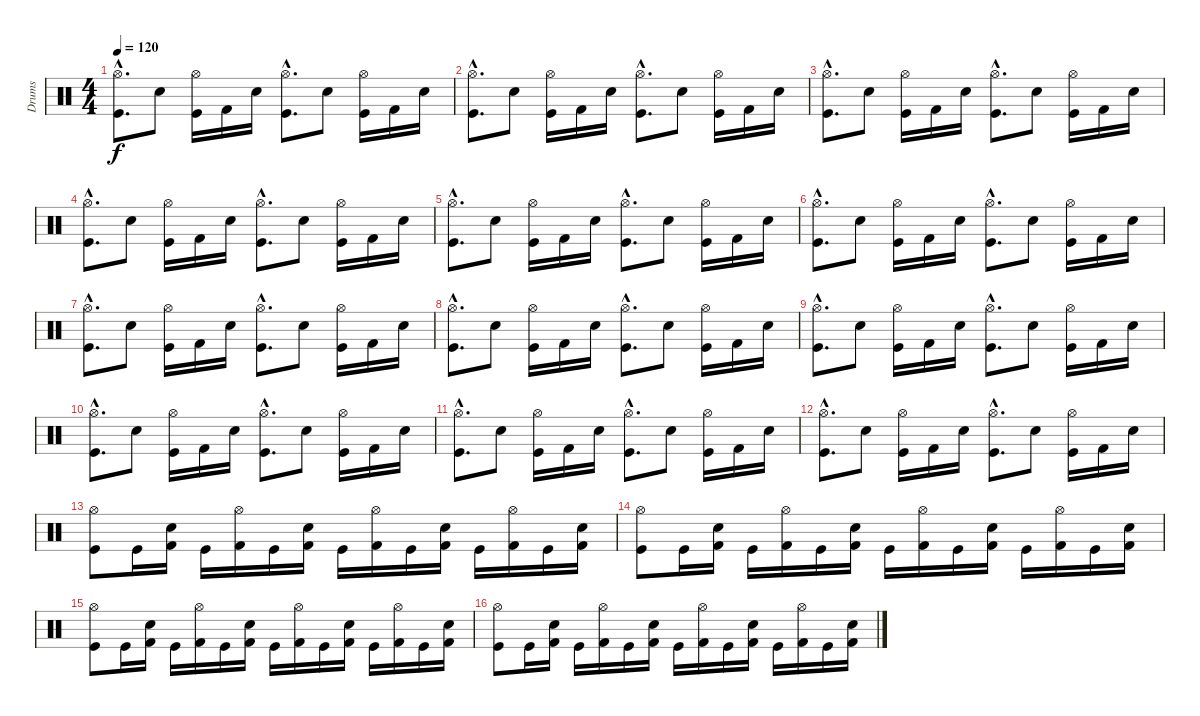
\track ("Drums" "Drums") {instrument percussion}
\staff {score}
\articulation defaults
\ts (4 4)
\tempo 120
\clef neutral
\ks c
("Hi-Hat (open)"{hac} "Kick (hit)"{hac}).8{d dy f} "Snare (hit) 2".8 ("Hi-Hat (open)" "Kick (hit)").16 "Kick (hit) 2".16 "Snare (hit) 2".16 ("Hi-Hat (open)"{hac} "Kick (hit)"{hac}).8{d} "Snare (hit) 2".8 ("Hi-Hat (open)" "Kick (hit)").16 "Kick (hit) 2".16 "Snare (hit) 2".16 |
("Hi-Hat (open)"{hac} "Kick (hit)"{hac}).8{d} "Snare (hit) 2".8 ("Hi-Hat (open)" "Kick (hit)").16 "Kick (hit) 2".16 "Snare (hit) 2".16 ("Hi-Hat (open)"{hac} "Kick (hit)"{hac}).8{d} "Snare (hit) 2".8 ("Hi-Hat (open)" "Kick (hit)").16 "Kick (hit) 2".16 "Snare (hit) 2".16 |
("Hi-Hat (open)"{hac} "Kick (hit)"{hac}).8{d} "Snare (hit) 2".8 ("Hi-Hat (open)" "Kick (hit)").16 "Kick (hit) 2".16 "Snare (hit) 2".16 ("Hi-Hat (open)"{hac} "Kick (hit)"{hac}).8{d} "Snare (hit) 2".8 ("Hi-Hat (open)" "Kick (hit)").16 "Kick (hit) 2".16 "Snare (hit) 2".16 |
("Hi-Hat (open)"{hac} "Kick (hit)"{hac}).8{d} "Snare (hit) 2".8 ("Hi-Hat (open)" "Kick (hit)").16 "Kick (hit) 2".16 "Snare (hit) 2".16 ("Hi-Hat (open)"{hac} "Kick (hit)"{hac}).8{d} "Snare (hit) 2".8 ("Hi-Hat (open)" "Kick (hit)").16 "Kick (hit) 2".16 "Snare (hit) 2".16 |
("Hi-Hat (open)"{hac} "Kick (hit)"{hac}).8{d} "Snare (hit) 2".8 ("Hi-Hat (open)" "Kick (hit)").16 "Kick (hit) 2".16 "Snare (hit) 2".16 ("Hi-Hat (open)"{hac} "Kick (hit)"{hac}).8{d} "Snare (hit) 2".8 ("Hi-Hat (open)" "Kick (hit)").16 "Kick (hit) 2".16 "Snare (hit) 2".16 |
("Hi-Hat (open)"{hac} "Kick (hit)"{hac}).8{d} "Snare (hit) 2".8 ("Hi-Hat (open)" "Kick (hit)").16 "Kick (hit) 2".16 "Snare (hit) 2".16 ("Hi-Hat (open)"{hac} "Kick (hit)"{hac}).8{d} "Snare (hit) 2".8 ("Hi-Hat (open)" "Kick (hit)").16 "Kick (hit) 2".16 "Snare (hit) 2".16 |
("Hi-Hat (open)"{hac} "Kick (hit)"{hac}).8{d} "Snare (hit) 2".8 ("Hi-Hat (open)" "Kick (hit)").16 "Kick (hit) 2".16 "Snare (hit) 2".16 ("Hi-Hat (open)"{hac} "Kick (hit)"{hac}).8{d} "Snare (hit) 2".8 ("Hi-Hat (open)" "Kick (hit)").16 "Kick (hit) 2".16 "Snare (hit) 2".16 |
("Hi-Hat (open)"{hac} "Kick (hit)"{hac}).8{d} "Snare (hit) 2".8 ("Hi-Hat (open)" "Kick (hit)").16 "Kick (hit) 2".16 "Snare (hit) 2".16 ("Hi-Hat (open)"{hac} "Kick (hit)"{hac}).8{d} "Snare (hit) 2".8 ("Hi-Hat (open)" "Kick (hit)").16 "Kick (hit) 2".16 "Snare (hit) 2".16 |
("Hi-Hat (open)"{hac} "Kick (hit)"{hac}).8{d} "Snare (hit) 2".8 ("Hi-Hat (open)" "Kick (hit)").16 "Kick (hit) 2".16 "Snare (hit) 2".16 ("Hi-Hat (open)"{hac} "Kick (hit)"{hac}).8{d} "Snare (hit) 2".8 ("Hi-Hat (open)" "Kick (hit)").16 "Kick (hit) 2".16 "Snare (hit) 2".16 |
("Hi-Hat (open)"{hac} "Kick (hit)"{hac}).8{d} "Snare (hit) 2".8 ("Hi-Hat (open)" "Kick (hit)").16 "Kick (hit) 2".16 "Snare (hit) 2".16 ("Hi-Hat (open)"{hac} "Kick (hit)"{hac}).8{d} "Snare (hit) 2".8 ("Hi-Hat (open)" "Kick (hit)").16 "Kick (hit) 2".16 "Snare (hit) 2".16 |
("Hi-Hat (open)"{hac} "Kick (hit)"{hac}).8{d} "Snare (hit) 2".8 ("Hi-Hat (open)" "Kick (hit)").16 "Kick (hit) 2".16 "Snare (hit) 2".16 ("Hi-Hat (open)"{hac} "Kick (hit)"{hac}).8{d} "Snare (hit) 2".8 ("Hi-Hat (open)" "Kick (hit)").16 "Kick (hit) 2".16 "Snare (hit) 2".16 |
("Hi-Hat (open)"{hac} "Kick (hit)"{hac}).8{d} "Snare (hit) 2".8 ("Hi-Hat (open)" "Kick (hit)").16 "Kick (hit) 2".16 "Snare (hit) 2".16 ("Hi-Hat (open)"{hac} "Kick (hit)"{hac}).8{d} "Snare (hit) 2".8 ("Hi-Hat (open)" "Kick (hit)").16 "Kick (hit) 2".16 "Snare (hit) 2".16 |
("Hi-Hat (open)" "Kick (hit)").8 "Kick (hit)".16 ("Snare (hit) 2" "Kick (hit) 2").16 "Kick (hit)".16 ("Hi-Hat (open)" "Kick (hit) 2").16 "Kick (hit)".16 ("Snare (hit) 2" "Kick (hit) 2").16 "Kick (hit)".16 ("Hi-Hat (open)" "Kick (hit) 2").16 "Kick (hit)".16 ("Snare (hit) 2" "Kick (hit) 2").16 "Kick (hit)".16 ("Hi-Hat (open)" "Kick (hit) 2").16 "Kick (hit)".16 ("Snare (hit) 2" "Kick (hit) 2").16 |
("Hi-Hat (open)" "Kick (hit)").8 "Kick (hit)".16 ("Snare (hit) 2" "Kick (hit) 2").16 "Kick (hit)".16 ("Hi-Hat (open)" "Kick (hit) 2").16 "Kick (hit)".16 ("Snare (hit) 2" "Kick (hit) 2").16 "Kick (hit)".16 ("Hi-Hat (open)" "Kick (hit) 2").16 "Kick (hit)".16 ("Snare (hit) 2" "Kick (hit) 2").16 "Kick (hit)".16 ("Hi-Hat (open)" "Kick (hit) 2").16 "Kick (hit)".16 ("Snare (hit) 2" "Kick (hit) 2").16 |
("Hi-Hat (open)" "Kick (hit)").8 "Kick (hit)".16 ("Snare (hit) 2" "Kick (hit) 2").16 "Kick (hit)".16 ("Hi-Hat (open)" "Kick (hit) 2").16 "Kick (hit)".16 ("Snare (hit) 2" "Kick (hit) 2").16 "Kick (hit)".16 ("Hi-Hat (open)" "Kick (hit) 2").16 "Kick (hit)".16 ("Snare (hit) 2" "Kick (hit) 2").16 "Kick (hit)".16 ("Hi-Hat (open)" "Kick (hit) 2").16 "Kick (hit)".16 ("Snare (hit) 2" "Kick (hit) 2").16 |
("Hi-Hat (open)" "Kick (hit)").8 "Kick (hit)".16 ("Snare (hit) 2" "Kick (hit) 2").16 "Kick (hit)".16 ("Hi-Hat (open)" "Kick (hit) 2").16 "Kick (hit)".16 ("Snare (hit) 2" "Kick (hit) 2").16 "Kick (hit)".16 ("Hi-Hat (open)" "Kick (hit) 2").16 "Kick (hit)".16 ("Snare (hit) 2" "Kick (hit) 2").16 "Kick (hit)".16 ("Hi-Hat (open)" "Kick (hit) 2").16 "Kick (hit)".16 ("Snare (hit) 2" "Kick (hit) 2").16
